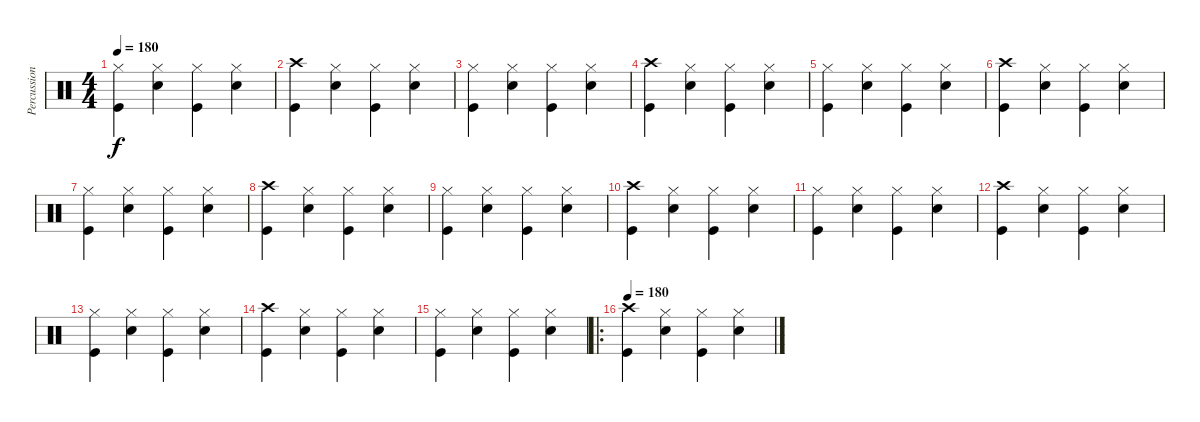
\track ("Percussion" "Percussion") {instrument percussion}
\staff {score}
\articulation defaults
\ts (4 4)
\tempo 180
\clef neutral
\ks c
("Hi-Hat (closed)" "Kick (hit)").4{dy f} ("Hi-Hat (closed)" "Snare (hit) 2").4 ("Hi-Hat (closed)" "Kick (hit)").4 ("Hi-Hat (closed)" "Snare (hit) 2").4 |
("Crash high (hit)" "Kick (hit)").4 ("Hi-Hat (closed)" "Snare (hit) 2").4 ("Hi-Hat (closed)" "Kick (hit)").4 ("Hi-Hat (closed)" "Snare (hit) 2").4 |
("Hi-Hat (closed)" "Kick (hit)").4 ("Hi-Hat (closed)" "Snare (hit) 2").4 ("Hi-Hat (closed)" "Kick (hit)").4 ("Hi-Hat (closed)" "Snare (hit) 2").4 |
("Crash high (hit)" "Kick (hit)").4 ("Hi-Hat (closed)" "Snare (hit) 2").4 ("Hi-Hat (closed)" "Kick (hit)").4 ("Hi-Hat (closed)" "Snare (hit) 2").4 |
("Hi-Hat (closed)" "Kick (hit)").4 ("Hi-Hat (closed)" "Snare (hit) 2").4 ("Hi-Hat (closed)" "Kick (hit)").4 ("Hi-Hat (closed)" "Snare (hit) 2").4 |
("Crash high (hit)" "Kick (hit)").4 ("Hi-Hat (closed)" "Snare (hit) 2").4 ("Hi-Hat (closed)" "Kick (hit)").4 ("Hi-Hat (closed)" "Snare (hit) 2").4 |
("Hi-Hat (closed)" "Kick (hit)").4 ("Hi-Hat (closed)" "Snare (hit) 2").4 ("Hi-Hat (closed)" "Kick (hit)").4 ("Hi-Hat (closed)" "Snare (hit) 2").4 |
("Crash high (hit)" "Kick (hit)").4 ("Hi-Hat (closed)" "Snare (hit) 2").4 ("Hi-Hat (closed)" "Kick (hit)").4 ("Hi-Hat (closed)" "Snare (hit) 2").4 |
("Hi-Hat (closed)" "Kick (hit)").4 ("Hi-Hat (closed)" "Snare (hit) 2").4 ("Hi-Hat (closed)" "Kick (hit)").4 ("Hi-Hat (closed)" "Snare (hit) 2").4 |
("Crash high (hit)" "Kick (hit)").4 ("Hi-Hat (closed)" "Snare (hit) 2").4 ("Hi-Hat (closed)" "Kick (hit)").4 ("Hi-Hat (closed)" "Snare (hit) 2").4 |
("Hi-Hat (closed)" "Kick (hit)").4 ("Hi-Hat (closed)" "Snare (hit) 2").4 ("Hi-Hat (closed)" "Kick (hit)").4 ("Hi-Hat (closed)" "Snare (hit) 2").4 |
("Crash high (hit)" "Kick (hit)").4 ("Hi-Hat (closed)" "Snare (hit) 2").4 ("Hi-Hat (closed)" "Kick (hit)").4 ("Hi-Hat (closed)" "Snare (hit) 2").4 |
("Hi-Hat (closed)" "Kick (hit)").4 ("Hi-Hat (closed)" "Snare (hit) 2").4 ("Hi-Hat (closed)" "Kick (hit)").4 ("Hi-Hat (closed)" "Snare (hit) 2").4 |
("Crash high (hit)" "Kick (hit)").4 ("Hi-Hat (closed)" "Snare (hit) 2").4 ("Hi-Hat (closed)" "Kick (hit)").4 ("Hi-Hat (closed)" "Snare (hit) 2").4 |
("Hi-Hat (closed)" "Kick (hit)").4 ("Hi-Hat (closed)" "Snare (hit) 2").4 ("Hi-Hat (closed)" "Kick (hit)").4 ("Hi-Hat (closed)" "Snare (hit) 2").4 |
\ro
\tempo 180
("Crash high (hit)" "Kick (hit)").4 ("Hi-Hat (closed)" "Snare (hit) 2").4 ("Hi-Hat (closed)" "Kick (hit)").4 ("Hi-Hat (closed)" "Snare (hit) 2").4
